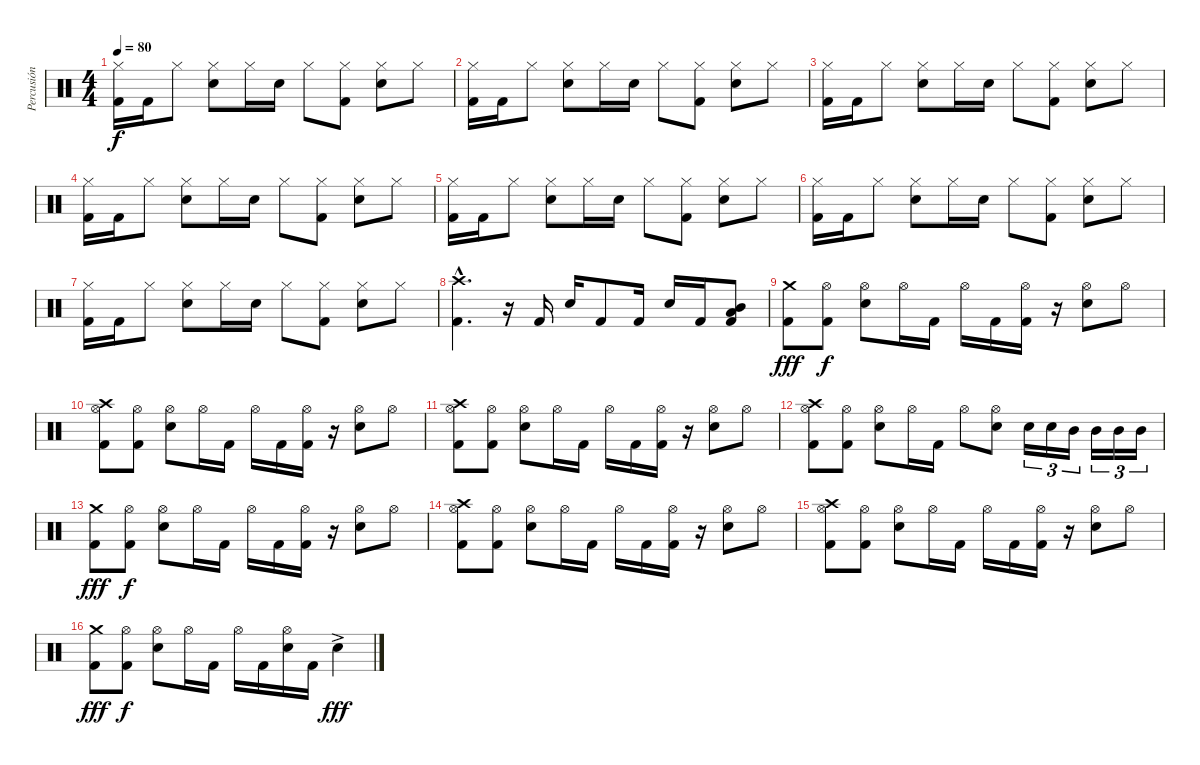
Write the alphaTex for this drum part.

\track ("Percusión" "Percusión") {instrument percussion}
\staff {score}
\articulation defaults
\ts (4 4)
\tempo 80
\clef neutral
\ks c
("Hi-Hat (closed)" "Kick (hit) 2").16{dy f} "Kick (hit) 2".16 "Hi-Hat (closed)".8 ("Hi-Hat (closed)" "Electric Snare (hit)").8 "Hi-Hat (closed)".16 "Electric Snare (hit)".16 "Hi-Hat (closed)".8 ("Hi-Hat (closed)" "Kick (hit) 2").8 ("Hi-Hat (closed)" "Electric Snare (hit)").8 "Hi-Hat (closed)".8 |
("Hi-Hat (closed)" "Kick (hit) 2").16 "Kick (hit) 2".16 "Hi-Hat (closed)".8 ("Hi-Hat (closed)" "Electric Snare (hit)").8 "Hi-Hat (closed)".16 "Electric Snare (hit)".16 "Hi-Hat (closed)".8 ("Hi-Hat (closed)" "Kick (hit) 2").8 ("Hi-Hat (closed)" "Electric Snare (hit)").8 "Hi-Hat (closed)".8 |
("Hi-Hat (closed)" "Kick (hit) 2").16 "Kick (hit) 2".16 "Hi-Hat (closed)".8 ("Hi-Hat (closed)" "Electric Snare (hit)").8 "Hi-Hat (closed)".16 "Electric Snare (hit)".16 "Hi-Hat (closed)".8 ("Hi-Hat (closed)" "Kick (hit) 2").8 ("Hi-Hat (closed)" "Electric Snare (hit)").8 "Hi-Hat (closed)".8 |
("Hi-Hat (closed)" "Kick (hit) 2").16 "Kick (hit) 2".16 "Hi-Hat (closed)".8 ("Hi-Hat (closed)" "Electric Snare (hit)").8 "Hi-Hat (closed)".16 "Electric Snare (hit)".16 "Hi-Hat (closed)".8 ("Hi-Hat (closed)" "Kick (hit) 2").8 ("Hi-Hat (closed)" "Electric Snare (hit)").8 "Hi-Hat (closed)".8 |
("Hi-Hat (closed)" "Kick (hit) 2").16 "Kick (hit) 2".16 "Hi-Hat (closed)".8 ("Hi-Hat (closed)" "Electric Snare (hit)").8 "Hi-Hat (closed)".16 "Electric Snare (hit)".16 "Hi-Hat (closed)".8 ("Hi-Hat (closed)" "Kick (hit) 2").8 ("Hi-Hat (closed)" "Electric Snare (hit)").8 "Hi-Hat (closed)".8 |
("Hi-Hat (closed)" "Kick (hit) 2").16 "Kick (hit) 2".16 "Hi-Hat (closed)".8 ("Hi-Hat (closed)" "Electric Snare (hit)").8 "Hi-Hat (closed)".16 "Electric Snare (hit)".16 "Hi-Hat (closed)".8 ("Hi-Hat (closed)" "Kick (hit) 2").8 ("Hi-Hat (closed)" "Electric Snare (hit)").8 "Hi-Hat (closed)".8 |
("Hi-Hat (closed)" "Kick (hit) 2").16 "Kick (hit) 2".16 "Hi-Hat (closed)".8 ("Hi-Hat (closed)" "Electric Snare (hit)").8 "Hi-Hat (closed)".16 "Electric Snare (hit)".16 "Hi-Hat (closed)".8 ("Hi-Hat (closed)" "Kick (hit) 2").8 ("Hi-Hat (closed)" "Electric Snare (hit)").8 "Hi-Hat (closed)".8 |
("Crash high (hit)"{hac} "Kick (hit) 2"{hac}).4{d} r.16 "Kick (hit) 2".16 "Electric Snare (hit)".16 "Kick (hit) 2".8 "Kick (hit) 2".16 "Electric Snare (hit)".16 "Kick (hit) 2".16 ("Mid Tom (hit)" "Low Tom (hit)" "Kick (hit) 2").8 |
("Crash medium (hit)" "Kick (hit) 2").8{dy fff} ("Hi-Hat (open)" "Kick (hit) 2").8{dy f} ("Hi-Hat (open)" "Electric Snare (hit)").8 "Hi-Hat (open)".16 "Kick (hit) 2".16 "Hi-Hat (open)".16 "Kick (hit) 2".16 ("Hi-Hat (open)" "Kick (hit) 2").16 r.16 ("Hi-Hat (open)" "Electric Snare (hit)").8 "Hi-Hat (open)".8 |
("Crash high (hit)" "Hi-Hat (open)" "Kick (hit) 2").8 ("Hi-Hat (open)" "Kick (hit) 2").8 ("Hi-Hat (open)" "Electric Snare (hit)").8 "Hi-Hat (open)".16 "Kick (hit) 2".16 "Hi-Hat (open)".16 "Kick (hit) 2".16 ("Hi-Hat (open)" "Kick (hit) 2").16 r.16 ("Hi-Hat (open)" "Electric Snare (hit)").8 "Hi-Hat (open)".8 |
("Crash high (hit)" "Hi-Hat (open)" "Kick (hit) 2").8 ("Hi-Hat (open)" "Kick (hit) 2").8 ("Hi-Hat (open)" "Electric Snare (hit)").8 "Hi-Hat (open)".16 "Kick (hit) 2".16 "Hi-Hat (open)".16 "Kick (hit) 2".16 ("Hi-Hat (open)" "Kick (hit) 2").16 r.16 ("Hi-Hat (open)" "Electric Snare (hit)").8 "Hi-Hat (open)".8 |
("Crash high (hit)" "Hi-Hat (open)" "Kick (hit) 2").8 ("Hi-Hat (open)" "Kick (hit) 2").8 ("Hi-Hat (open)" "Electric Snare (hit)").8 "Hi-Hat (open)".16 "Kick (hit) 2".16 "Hi-Hat (open)".8 ("Hi-Hat (open)" "Electric Snare (hit)").8 "Electric Snare (hit)".16{tu (3 2)} "Electric Snare (hit)".16{tu (3 2)} "Mid Tom (hit)".16{tu (3 2)} "Mid Tom (hit)".16{tu (3 2)} "Mid Tom (hit)".16{tu (3 2)} "Mid Tom (hit)".16{tu (3 2)} |
("Crash medium (hit)" "Kick (hit) 2").8{dy fff} ("Hi-Hat (open)" "Kick (hit) 2").8{dy f} ("Hi-Hat (open)" "Electric Snare (hit)").8 "Hi-Hat (open)".16 "Kick (hit) 2".16 "Hi-Hat (open)".16 "Kick (hit) 2".16 ("Hi-Hat (open)" "Kick (hit) 2").16 r.16 ("Hi-Hat (open)" "Electric Snare (hit)").8 "Hi-Hat (open)".8 |
("Crash high (hit)" "Hi-Hat (open)" "Kick (hit) 2").8 ("Hi-Hat (open)" "Kick (hit) 2").8 ("Hi-Hat (open)" "Electric Snare (hit)").8 "Hi-Hat (open)".16 "Kick (hit) 2".16 "Hi-Hat (open)".16 "Kick (hit) 2".16 ("Hi-Hat (open)" "Kick (hit) 2").16 r.16 ("Hi-Hat (open)" "Electric Snare (hit)").8 "Hi-Hat (open)".8 |
("Crash high (hit)" "Hi-Hat (open)" "Kick (hit) 2").8 ("Hi-Hat (open)" "Kick (hit) 2").8 ("Hi-Hat (open)" "Electric Snare (hit)").8 "Hi-Hat (open)".16 "Kick (hit) 2".16 "Hi-Hat (open)".16 "Kick (hit) 2".16 ("Hi-Hat (open)" "Kick (hit) 2").16 r.16 ("Hi-Hat (open)" "Electric Snare (hit)").8 "Hi-Hat (open)".8 |
("Crash medium (hit)" "Kick (hit) 2").8{dy fff} ("Hi-Hat (open)" "Kick (hit) 2").8{dy f} ("Hi-Hat (open)" "Electric Snare (hit)").8 "Hi-Hat (open)".16 "Kick (hit) 2".16 "Hi-Hat (open)".16 "Kick (hit) 2".16 ("Hi-Hat (open)" "Electric Snare (hit)").16 "Kick (hit) 2".16 "Electric Snare (hit)"{ac}.4{dy fff}
